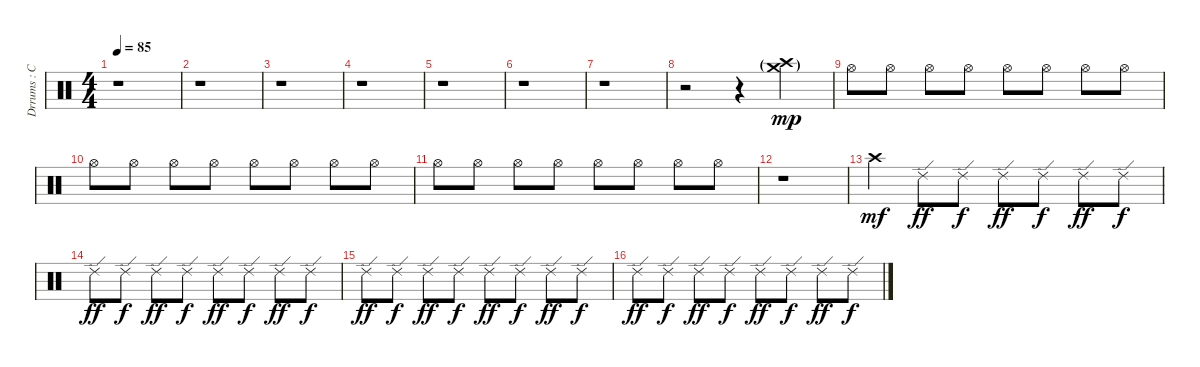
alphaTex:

\track ("Drrums : Cymbals" "Drrums : C") {instrument percussion}
\staff {score}
\articulation defaults
\ts (4 4)
\tempo 85
\clef neutral
\ks c
r.1{dy mp} |
r.1 |
r.1 |
r.1 |
r.1 |
r.1 |
r.1 |
r.2 r.4 ("Crash high (hit)"{g} "Crash medium (hit)"{g}).4 |
"Hi-Hat (open)".8 "Hi-Hat (open)".8 "Hi-Hat (open)".8 "Hi-Hat (open)".8 "Hi-Hat (open)".8 "Hi-Hat (open)".8 "Hi-Hat (open)".8 "Hi-Hat (open)".8 |
"Hi-Hat (open)".8 "Hi-Hat (open)".8 "Hi-Hat (open)".8 "Hi-Hat (open)".8 "Hi-Hat (open)".8 "Hi-Hat (open)".8 "Hi-Hat (open)".8 "Hi-Hat (open)".8 |
"Hi-Hat (open)".8 "Hi-Hat (open)".8 "Hi-Hat (open)".8 "Hi-Hat (open)".8 "Hi-Hat (open)".8 "Hi-Hat (open)".8 "Hi-Hat (open)".8 "Hi-Hat (open)".8 |
r.1 |
"Crash high (hit)".4{dy mf} "Ride (edge) 2".8{dy ff} "Ride (edge) 2".8{dy f} "Ride (edge) 2".8{dy ff} "Ride (edge) 2".8{dy f} "Ride (edge) 2".8{dy ff} "Ride (edge) 2".8{dy f} |
"Ride (edge) 2".8{dy ff} "Ride (edge) 2".8{dy f} "Ride (edge) 2".8{dy ff} "Ride (edge) 2".8{dy f} "Ride (edge) 2".8{dy ff} "Ride (edge) 2".8{dy f} "Ride (edge) 2".8{dy ff} "Ride (edge) 2".8{dy f} |
"Ride (edge) 2".8{dy ff} "Ride (edge) 2".8{dy f} "Ride (edge) 2".8{dy ff} "Ride (edge) 2".8{dy f} "Ride (edge) 2".8{dy ff} "Ride (edge) 2".8{dy f} "Ride (edge) 2".8{dy ff} "Ride (edge) 2".8{dy f} |
"Ride (edge) 2".8{dy ff} "Ride (edge) 2".8{dy f} "Ride (edge) 2".8{dy ff} "Ride (edge) 2".8{dy f} "Ride (edge) 2".8{dy ff} "Ride (edge) 2".8{dy f} "Ride (edge) 2".8{dy ff} "Ride (edge) 2".8{dy f}
